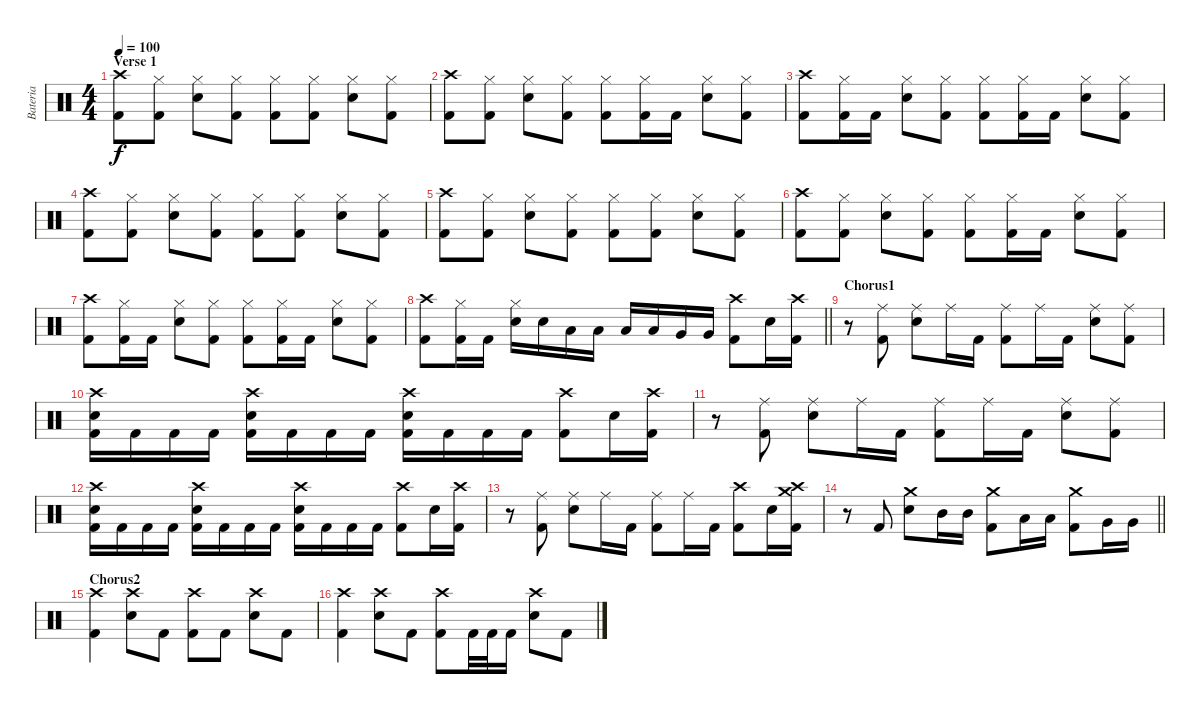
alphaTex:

\track ("Bateria" "Bateria") {instrument percussion}
\staff {score}
\articulation defaults
\ts (4 4)
\section ("" "Verse 1")
\tempo 100
\clef neutral
\ks c
("Crash high (hit)" "Kick (hit) 2").8{dy f} ("Hi-Hat (closed)" "Kick (hit) 2").8 ("Hi-Hat (closed)" "Snare (hit) 2").8 ("Hi-Hat (closed)" "Kick (hit) 2").8 ("Hi-Hat (closed)" "Kick (hit) 2").8 ("Hi-Hat (closed)" "Kick (hit) 2").8 ("Hi-Hat (closed)" "Snare (hit) 2").8 ("Hi-Hat (closed)" "Kick (hit) 2").8 |
("Crash high (hit)" "Kick (hit) 2").8 ("Hi-Hat (closed)" "Kick (hit) 2").8 ("Hi-Hat (closed)" "Snare (hit) 2").8 ("Hi-Hat (closed)" "Kick (hit) 2").8 ("Hi-Hat (closed)" "Kick (hit) 2").8 ("Hi-Hat (closed)" "Kick (hit) 2").16 "Kick (hit) 2".16 ("Hi-Hat (closed)" "Snare (hit) 2").8 ("Hi-Hat (closed)" "Kick (hit) 2").8 |
("Crash high (hit)" "Kick (hit) 2").8 ("Hi-Hat (closed)" "Kick (hit) 2").16 "Kick (hit) 2".16 ("Hi-Hat (closed)" "Snare (hit) 2").8 ("Hi-Hat (closed)" "Kick (hit) 2").8 ("Hi-Hat (closed)" "Kick (hit) 2").8 ("Hi-Hat (closed)" "Kick (hit) 2").16 "Kick (hit) 2".16 ("Hi-Hat (closed)" "Snare (hit) 2").8 ("Hi-Hat (closed)" "Kick (hit) 2").8 |
("Crash high (hit)" "Kick (hit) 2").8 ("Hi-Hat (closed)" "Kick (hit) 2").8 ("Hi-Hat (closed)" "Snare (hit) 2").8 ("Hi-Hat (closed)" "Kick (hit) 2").8 ("Hi-Hat (closed)" "Kick (hit) 2").8 ("Hi-Hat (closed)" "Kick (hit) 2").8 ("Hi-Hat (closed)" "Snare (hit) 2").8 ("Hi-Hat (closed)" "Kick (hit) 2").8 |
("Crash high (hit)" "Kick (hit) 2").8 ("Hi-Hat (closed)" "Kick (hit) 2").8 ("Hi-Hat (closed)" "Snare (hit) 2").8 ("Hi-Hat (closed)" "Kick (hit) 2").8 ("Hi-Hat (closed)" "Kick (hit) 2").8 ("Hi-Hat (closed)" "Kick (hit) 2").8 ("Hi-Hat (closed)" "Snare (hit) 2").8 ("Hi-Hat (closed)" "Kick (hit) 2").8 |
("Crash high (hit)" "Kick (hit) 2").8 ("Hi-Hat (closed)" "Kick (hit) 2").8 ("Hi-Hat (closed)" "Snare (hit) 2").8 ("Hi-Hat (closed)" "Kick (hit) 2").8 ("Hi-Hat (closed)" "Kick (hit) 2").8 ("Hi-Hat (closed)" "Kick (hit) 2").16 "Kick (hit) 2".16 ("Hi-Hat (closed)" "Snare (hit) 2").8 ("Hi-Hat (closed)" "Kick (hit) 2").8 |
("Crash high (hit)" "Kick (hit) 2").8 ("Hi-Hat (closed)" "Kick (hit) 2").16 "Kick (hit) 2".16 ("Hi-Hat (closed)" "Snare (hit) 2").8 ("Hi-Hat (closed)" "Kick (hit) 2").8 ("Hi-Hat (closed)" "Kick (hit) 2").8 ("Hi-Hat (closed)" "Kick (hit) 2").16 "Kick (hit) 2".16 ("Hi-Hat (closed)" "Snare (hit) 2").8 ("Hi-Hat (closed)" "Kick (hit) 2").8 |
\barLineRight lightlight
("Crash high (hit)" "Kick (hit) 2").8 ("Hi-Hat (closed)" "Kick (hit) 2").16 "Kick (hit) 2".16 ("Hi-Hat (closed)" "Snare (hit) 2").16 "Snare (hit) 2".16 "Low Tom (hit)".16 "Low Tom (hit)".16 "Low Tom (hit)".16 "Low Tom (hit)".16 "Very Low Tom (hit)".16 "Very Low Tom (hit)".16 ("Crash high (hit)" "Kick (hit) 2").8 "Snare (hit) 2".16 ("Crash high (hit)" "Kick (hit) 2").16 |
\section ("" "Chorus1")
r.8 ("Ride (middle)" "Kick (hit) 2").8 ("Ride (middle)" "Snare (hit) 2").8 "Ride (middle)".16 "Kick (hit) 2".16 ("Ride (middle)" "Kick (hit) 2").8 "Ride (middle)".16 "Kick (hit) 2".16 ("Ride (middle)" "Snare (hit) 2").8 ("Ride (middle)" "Kick (hit) 2").8 |
("Crash high (hit)" "Snare (hit) 2" "Kick (hit) 2").16 "Kick (hit) 2".16 "Kick (hit) 2".16 "Kick (hit) 2".16 ("Crash high (hit)" "Snare (hit) 2" "Kick (hit) 2").16 "Kick (hit) 2".16 "Kick (hit) 2".16 "Kick (hit) 2".16 ("Crash high (hit)" "Snare (hit) 2" "Kick (hit) 2").16 "Kick (hit) 2".16 "Kick (hit) 2".16 "Kick (hit) 2".16 ("Crash high (hit)" "Kick (hit) 2").8 "Snare (hit) 2".16 ("Crash high (hit)" "Kick (hit) 2").16 |
r.8 ("Ride (middle)" "Kick (hit) 2").8 ("Ride (middle)" "Snare (hit) 2").8 "Ride (middle)".16 "Kick (hit) 2".16 ("Ride (middle)" "Kick (hit) 2").8 "Ride (middle)".16 "Kick (hit) 2".16 ("Ride (middle)" "Snare (hit) 2").8 ("Ride (middle)" "Kick (hit) 2").8 |
("Crash high (hit)" "Snare (hit) 2" "Kick (hit) 2").16 "Kick (hit) 2".16 "Kick (hit) 2".16 "Kick (hit) 2".16 ("Crash high (hit)" "Snare (hit) 2" "Kick (hit) 2").16 "Kick (hit) 2".16 "Kick (hit) 2".16 "Kick (hit) 2".16 ("Crash high (hit)" "Snare (hit) 2" "Kick (hit) 2").16 "Kick (hit) 2".16 "Kick (hit) 2".16 "Kick (hit) 2".16 ("Crash high (hit)" "Kick (hit) 2").8 "Snare (hit) 2".16 ("Crash high (hit)" "Kick (hit) 2").16 |
r.8 ("Ride (middle)" "Kick (hit) 2").8 ("Ride (middle)" "Snare (hit) 2").8 "Ride (middle)".16 "Kick (hit) 2".16 ("Ride (middle)" "Kick (hit) 2").8 "Ride (middle)".16 "Kick (hit) 2".16 ("Crash high (hit)" "Kick (hit) 2").8 "Snare (hit) 2".16 ("Crash high (hit)" "Crash medium (hit)" "Kick (hit) 2").16 |
\barLineRight lightlight
r.8 "Kick (hit) 2".8 ("Crash medium (hit)" "Snare (hit) 2").8 "Mid Tom (hit)".16 "Mid Tom (hit)".16 ("Crash medium (hit)" "Kick (hit) 2").8 "Low Tom (hit)".16 "Low Tom (hit)".16 ("Crash medium (hit)" "Kick (hit) 2").8 "Very Low Tom (hit)".16 "Very Low Tom (hit)".16 |
\section ("" "Chorus2")
("Crash high (hit)" "Kick (hit) 2").4 ("Crash high (hit)" "Snare (hit) 2").8 "Kick (hit) 2".8 ("Crash high (hit)" "Kick (hit) 2").8 "Kick (hit) 2".8 ("Crash high (hit)" "Snare (hit) 2").8 "Kick (hit) 2".8 |
("Crash high (hit)" "Kick (hit) 2").4 ("Crash high (hit)" "Snare (hit) 2").8 "Kick (hit) 2".8 ("Crash high (hit)" "Kick (hit) 2").8 "Kick (hit) 2".32 "Kick (hit) 2".32 "Kick (hit) 2".16 ("Crash high (hit)" "Snare (hit) 2").8 "Kick (hit) 2".8
